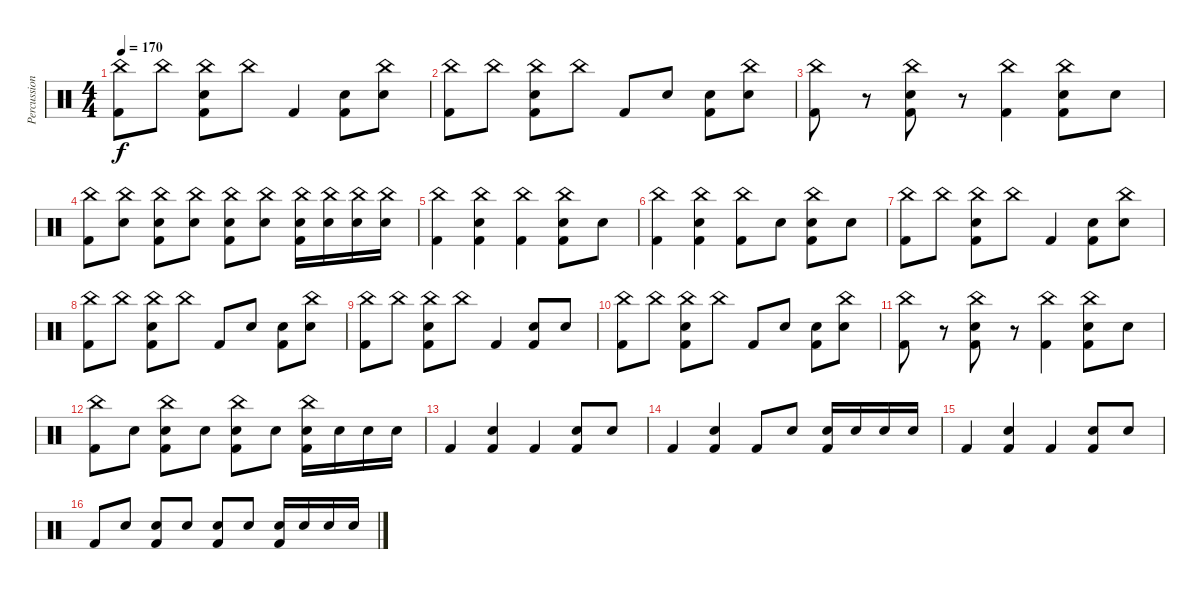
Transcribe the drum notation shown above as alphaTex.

\track ("Percussion" "Percussion") {instrument percussion}
\staff {score}
\articulation defaults
\ts (4 4)
\tempo 170
\clef neutral
\ks c
("China (hit)" "Kick (hit) 2").8{dy f} "China (hit)".8 ("China (hit)" "Electric Snare (hit)" "Kick (hit) 2").8 "China (hit)".8 "Kick (hit) 2".4 ("Electric Snare (hit)" "Kick (hit) 2").8 ("China (hit)" "Electric Snare (hit)").8 |
("China (hit)" "Kick (hit) 2").8 "China (hit)".8 ("China (hit)" "Electric Snare (hit)" "Kick (hit) 2").8 "China (hit)".8 "Kick (hit) 2".8 "Electric Snare (hit)".8 ("Electric Snare (hit)" "Kick (hit) 2").8 ("China (hit)" "Electric Snare (hit)").8 |
("China (hit)" "Kick (hit) 2").8 r.8 ("China (hit)" "Electric Snare (hit)" "Kick (hit) 2").8 r.8 ("China (hit)" "Kick (hit) 2").4 ("China (hit)" "Electric Snare (hit)" "Kick (hit) 2").8 "Electric Snare (hit)".8 |
("China (hit)" "Kick (hit) 2").8 ("China (hit)" "Electric Snare (hit)").8 ("China (hit)" "Electric Snare (hit)" "Kick (hit) 2").8 ("China (hit)" "Electric Snare (hit)").8 ("China (hit)" "Electric Snare (hit)" "Kick (hit) 2").8 ("China (hit)" "Electric Snare (hit)").8 ("China (hit)" "Electric Snare (hit)" "Kick (hit) 2").16 ("China (hit)" "Electric Snare (hit)").16 ("China (hit)" "Electric Snare (hit)").16 ("China (hit)" "Electric Snare (hit)").16 |
("China (hit)" "Kick (hit) 2").4 ("China (hit)" "Electric Snare (hit)" "Kick (hit) 2").4 ("China (hit)" "Kick (hit) 2").4 ("China (hit)" "Electric Snare (hit)" "Kick (hit) 2").8 "Electric Snare (hit)".8 |
("China (hit)" "Kick (hit) 2").4 ("China (hit)" "Electric Snare (hit)" "Kick (hit) 2").4 ("China (hit)" "Kick (hit) 2").8 "Electric Snare (hit)".8 ("China (hit)" "Electric Snare (hit)" "Kick (hit) 2").8 "Electric Snare (hit)".8 |
("China (hit)" "Kick (hit) 2").8 "China (hit)".8 ("China (hit)" "Electric Snare (hit)" "Kick (hit) 2").8 "China (hit)".8 "Kick (hit) 2".4 ("Electric Snare (hit)" "Kick (hit) 2").8 ("China (hit)" "Electric Snare (hit)").8 |
("China (hit)" "Kick (hit) 2").8 "China (hit)".8 ("China (hit)" "Electric Snare (hit)" "Kick (hit) 2").8 "China (hit)".8 "Kick (hit) 2".8 "Electric Snare (hit)".8 ("Electric Snare (hit)" "Kick (hit) 2").8 ("China (hit)" "Electric Snare (hit)").8 |
("China (hit)" "Kick (hit) 2").8 "China (hit)".8 ("China (hit)" "Electric Snare (hit)" "Kick (hit) 2").8 "China (hit)".8 "Kick (hit) 2".4 ("Electric Snare (hit)" "Kick (hit) 2").8 "Electric Snare (hit)".8 |
("China (hit)" "Kick (hit) 2").8 "China (hit)".8 ("China (hit)" "Electric Snare (hit)" "Kick (hit) 2").8 "China (hit)".8 "Kick (hit) 2".8 "Electric Snare (hit)".8 ("Electric Snare (hit)" "Kick (hit) 2").8 ("China (hit)" "Electric Snare (hit)").8 |
("China (hit)" "Kick (hit) 2").8 r.8 ("China (hit)" "Electric Snare (hit)" "Kick (hit) 2").8 r.8 ("China (hit)" "Kick (hit) 2").4 ("China (hit)" "Electric Snare (hit)" "Kick (hit) 2").8 "Electric Snare (hit)".8 |
("China (hit)" "Kick (hit) 2").8 "Electric Snare (hit)".8 ("China (hit)" "Electric Snare (hit)" "Kick (hit) 2").8 "Electric Snare (hit)".8 ("China (hit)" "Electric Snare (hit)" "Kick (hit) 2").8 "Electric Snare (hit)".8 ("China (hit)" "Electric Snare (hit)" "Kick (hit) 2").16 "Electric Snare (hit)".16 "Electric Snare (hit)".16 "Electric Snare (hit)".16 |
"Kick (hit) 2".4 ("Electric Snare (hit)" "Kick (hit) 2").4 "Kick (hit) 2".4 ("Electric Snare (hit)" "Kick (hit) 2").8 "Electric Snare (hit)".8 |
"Kick (hit) 2".4 ("Electric Snare (hit)" "Kick (hit) 2").4 "Kick (hit) 2".8 "Electric Snare (hit)".8 ("Electric Snare (hit)" "Kick (hit) 2").16 "Electric Snare (hit)".16 "Electric Snare (hit)".16 "Electric Snare (hit)".16 |
"Kick (hit) 2".4 ("Electric Snare (hit)" "Kick (hit) 2").4 "Kick (hit) 2".4 ("Electric Snare (hit)" "Kick (hit) 2").8 "Electric Snare (hit)".8 |
"Kick (hit) 2".8 "Electric Snare (hit)".8 ("Electric Snare (hit)" "Kick (hit) 2").8 "Electric Snare (hit)".8 ("Electric Snare (hit)" "Kick (hit) 2").8 "Electric Snare (hit)".8 ("Electric Snare (hit)" "Kick (hit) 2").16 "Electric Snare (hit)".16 "Electric Snare (hit)".16 "Electric Snare (hit)".16
